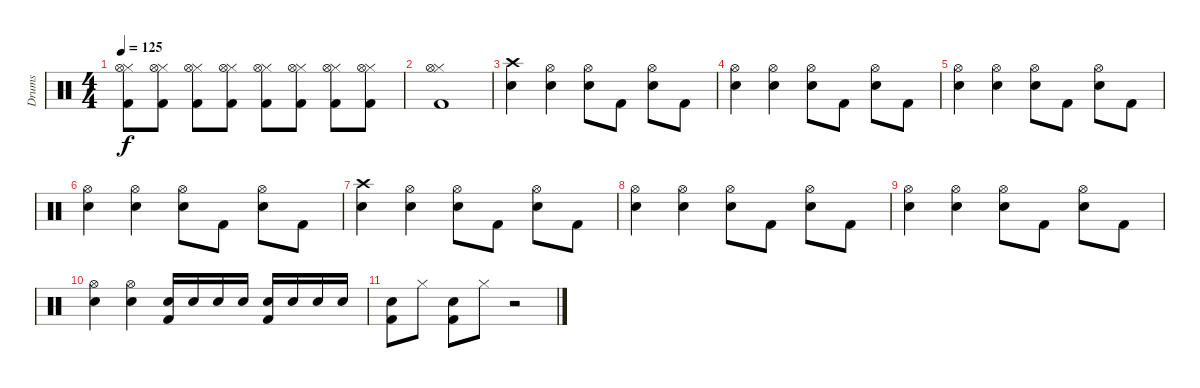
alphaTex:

\track ("Drums" "Drums") {instrument percussion}
\staff {score}
\articulation defaults
\ts (4 4)
\tempo 125
\clef neutral
\ks c
("Hi-Hat (closed)" "Hi-Hat (open)" "Kick (hit) 2").8{dy f} ("Hi-Hat (closed)" "Hi-Hat (open)" "Kick (hit) 2").8 ("Hi-Hat (closed)" "Hi-Hat (open)" "Kick (hit) 2").8 ("Hi-Hat (closed)" "Hi-Hat (open)" "Kick (hit) 2").8 ("Hi-Hat (closed)" "Hi-Hat (open)" "Kick (hit) 2").8 ("Hi-Hat (closed)" "Hi-Hat (open)" "Kick (hit) 2").8 ("Hi-Hat (closed)" "Hi-Hat (open)" "Kick (hit) 2").8 ("Hi-Hat (closed)" "Hi-Hat (open)" "Kick (hit) 2").8 |
("Hi-Hat (closed)" "Hi-Hat (open)" "Kick (hit) 2").1 |
("Crash high (hit)" "Electric Snare (hit)").4 ("Hi-Hat (open)" "Electric Snare (hit)").4 ("Hi-Hat (open)" "Electric Snare (hit)").8 "Kick (hit) 2".8 ("Hi-Hat (open)" "Electric Snare (hit)").8 "Kick (hit) 2".8 |
("Hi-Hat (open)" "Electric Snare (hit)").4 ("Hi-Hat (open)" "Electric Snare (hit)").4 ("Hi-Hat (open)" "Electric Snare (hit)").8 "Kick (hit) 2".8 ("Hi-Hat (open)" "Electric Snare (hit)").8 "Kick (hit) 2".8 |
("Hi-Hat (open)" "Electric Snare (hit)").4 ("Hi-Hat (open)" "Electric Snare (hit)").4 ("Hi-Hat (open)" "Electric Snare (hit)").8 "Kick (hit) 2".8 ("Hi-Hat (open)" "Electric Snare (hit)").8 "Kick (hit) 2".8 |
("Hi-Hat (open)" "Electric Snare (hit)").4 ("Hi-Hat (open)" "Electric Snare (hit)").4 ("Hi-Hat (open)" "Electric Snare (hit)").8 "Kick (hit) 2".8 ("Hi-Hat (open)" "Electric Snare (hit)").8 "Kick (hit) 2".8 |
("Crash high (hit)" "Electric Snare (hit)").4 ("Hi-Hat (open)" "Electric Snare (hit)").4 ("Hi-Hat (open)" "Electric Snare (hit)").8 "Kick (hit) 2".8 ("Hi-Hat (open)" "Electric Snare (hit)").8 "Kick (hit) 2".8 |
("Hi-Hat (open)" "Electric Snare (hit)").4 ("Hi-Hat (open)" "Electric Snare (hit)").4 ("Hi-Hat (open)" "Electric Snare (hit)").8 "Kick (hit) 2".8 ("Hi-Hat (open)" "Electric Snare (hit)").8 "Kick (hit) 2".8 |
("Hi-Hat (open)" "Electric Snare (hit)").4 ("Hi-Hat (open)" "Electric Snare (hit)").4 ("Hi-Hat (open)" "Electric Snare (hit)").8 "Kick (hit) 2".8 ("Hi-Hat (open)" "Electric Snare (hit)").8 "Kick (hit) 2".8 |
("Hi-Hat (open)" "Electric Snare (hit)").4 ("Hi-Hat (open)" "Electric Snare (hit)").4 ("Electric Snare (hit)" "Kick (hit) 2").16 "Electric Snare (hit)".16 "Electric Snare (hit)".16 "Electric Snare (hit)".16 ("Electric Snare (hit)" "Kick (hit) 2").16 "Electric Snare (hit)".16 "Electric Snare (hit)".16 "Electric Snare (hit)".16 |
("Electric Snare (hit)" "Kick (hit) 2").8 "Hi-Hat (closed)".8 ("Electric Snare (hit)" "Kick (hit) 2").8 "Hi-Hat (closed)".8 r.2
